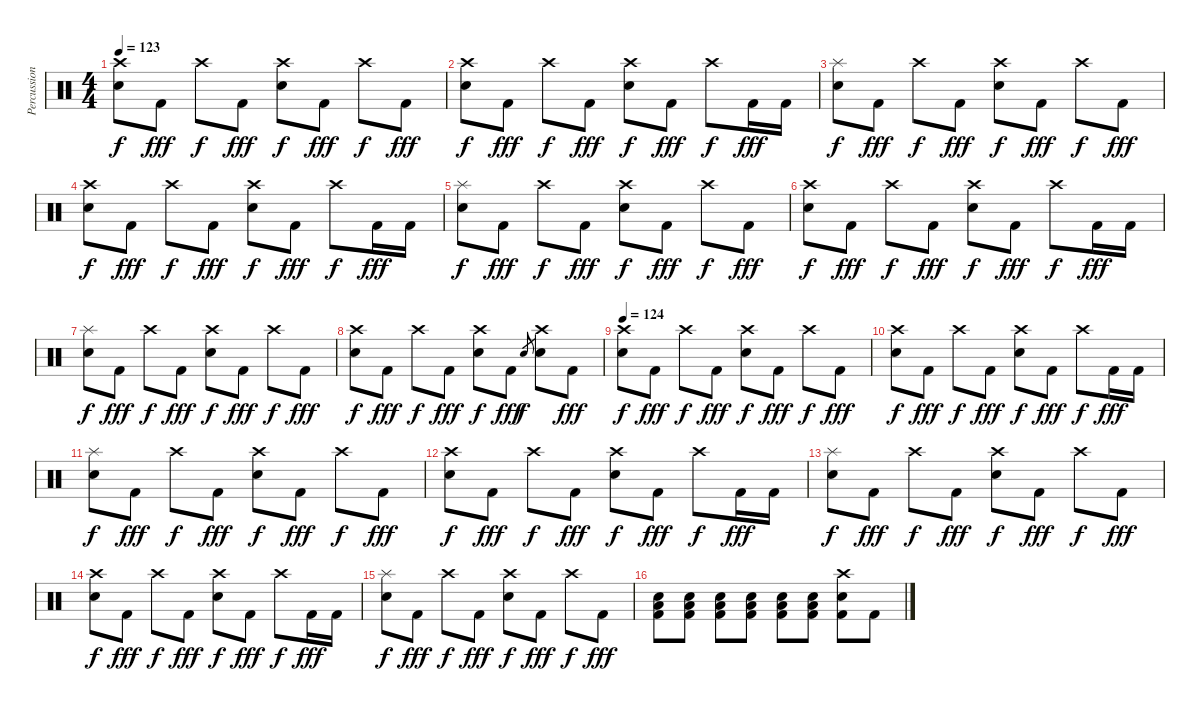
\track ("Percussion" "Percussion") {instrument percussion}
\staff {score}
\articulation defaults
\ts (4 4)
\tempo 123
\clef neutral
\ks c
("Crash high (hit)" "Snare (hit) 2").8{dy f} "Kick (hit) 2".8{dy fff} "Crash high (hit)".8{dy f} "Kick (hit) 2".8{dy fff} ("Crash high (hit)" "Snare (hit) 2").8{dy f} "Kick (hit) 2".8{dy fff} "Crash high (hit)".8{dy f} "Kick (hit) 2".8{dy fff} |
("Crash high (hit)" "Snare (hit) 2").8{dy f} "Kick (hit) 2".8{dy fff} "Crash high (hit)".8{dy f} "Kick (hit) 2".8{dy fff} ("Crash high (hit)" "Snare (hit) 2").8{dy f} "Kick (hit) 2".8{dy fff} "Crash high (hit)".8{dy f} "Kick (hit) 2".16{dy fff} "Kick (hit) 2".16 |
("Splash (hit)" "Snare (hit) 2").8{dy f} "Kick (hit) 2".8{dy fff} "Crash high (hit)".8{dy f} "Kick (hit) 2".8{dy fff} ("Crash high (hit)" "Snare (hit) 2").8{dy f} "Kick (hit) 2".8{dy fff} "Crash high (hit)".8{dy f} "Kick (hit) 2".8{dy fff} |
("Crash high (hit)" "Snare (hit) 2").8{dy f} "Kick (hit) 2".8{dy fff} "Crash high (hit)".8{dy f} "Kick (hit) 2".8{dy fff} ("Crash high (hit)" "Snare (hit) 2").8{dy f} "Kick (hit) 2".8{dy fff} "Crash high (hit)".8{dy f} "Kick (hit) 2".16{dy fff} "Kick (hit) 2".16 |
("Splash (hit)" "Snare (hit) 2").8{dy f} "Kick (hit) 2".8{dy fff} "Crash high (hit)".8{dy f} "Kick (hit) 2".8{dy fff} ("Crash high (hit)" "Snare (hit) 2").8{dy f} "Kick (hit) 2".8{dy fff} "Crash high (hit)".8{dy f} "Kick (hit) 2".8{dy fff} |
("Crash high (hit)" "Snare (hit) 2").8{dy f} "Kick (hit) 2".8{dy fff} "Crash high (hit)".8{dy f} "Kick (hit) 2".8{dy fff} ("Crash high (hit)" "Snare (hit) 2").8{dy f} "Kick (hit) 2".8{dy fff} "Crash high (hit)".8{dy f} "Kick (hit) 2".16{dy fff} "Kick (hit) 2".16 |
("Splash (hit)" "Snare (hit) 2").8{dy f} "Kick (hit) 2".8{dy fff} "Crash high (hit)".8{dy f} "Kick (hit) 2".8{dy fff} ("Crash high (hit)" "Snare (hit) 2").8{dy f} "Kick (hit) 2".8{dy fff} "Crash high (hit)".8{dy f} "Kick (hit) 2".8{dy fff} |
("Crash high (hit)" "Snare (hit) 2").8{dy f} "Kick (hit) 2".8{dy fff} "Crash high (hit)".8{dy f} "Kick (hit) 2".8{dy fff} ("Crash high (hit)" "Snare (hit) 2").8{dy f} "Kick (hit) 2".8{dy fff} "Snare (hit) 2"{sl}.8{gr dy f} ("Crash high (hit)" "Snare (hit) 2").8 "Kick (hit) 2".8{dy fff} |
\tempo 124
("Crash high (hit)" "Snare (hit) 2").8{dy f} "Kick (hit) 2".8{dy fff} "Crash high (hit)".8{dy f} "Kick (hit) 2".8{dy fff} ("Crash high (hit)" "Snare (hit) 2").8{dy f} "Kick (hit) 2".8{dy fff} "Crash high (hit)".8{dy f} "Kick (hit) 2".8{dy fff} |
("Crash high (hit)" "Snare (hit) 2").8{dy f} "Kick (hit) 2".8{dy fff} "Crash high (hit)".8{dy f} "Kick (hit) 2".8{dy fff} ("Crash high (hit)" "Snare (hit) 2").8{dy f} "Kick (hit) 2".8{dy fff} "Crash high (hit)".8{dy f} "Kick (hit) 2".16{dy fff} "Kick (hit) 2".16 |
("Splash (hit)" "Snare (hit) 2").8{dy f} "Kick (hit) 2".8{dy fff} "Crash high (hit)".8{dy f} "Kick (hit) 2".8{dy fff} ("Crash high (hit)" "Snare (hit) 2").8{dy f} "Kick (hit) 2".8{dy fff} "Crash high (hit)".8{dy f} "Kick (hit) 2".8{dy fff} |
("Crash high (hit)" "Snare (hit) 2").8{dy f} "Kick (hit) 2".8{dy fff} "Crash high (hit)".8{dy f} "Kick (hit) 2".8{dy fff} ("Crash high (hit)" "Snare (hit) 2").8{dy f} "Kick (hit) 2".8{dy fff} "Crash high (hit)".8{dy f} "Kick (hit) 2".16{dy fff} "Kick (hit) 2".16 |
("Splash (hit)" "Snare (hit) 2").8{dy f} "Kick (hit) 2".8{dy fff} "Crash high (hit)".8{dy f} "Kick (hit) 2".8{dy fff} ("Crash high (hit)" "Snare (hit) 2").8{dy f} "Kick (hit) 2".8{dy fff} "Crash high (hit)".8{dy f} "Kick (hit) 2".8{dy fff} |
("Crash high (hit)" "Snare (hit) 2").8{dy f} "Kick (hit) 2".8{dy fff} "Crash high (hit)".8{dy f} "Kick (hit) 2".8{dy fff} ("Crash high (hit)" "Snare (hit) 2").8{dy f} "Kick (hit) 2".8{dy fff} "Crash high (hit)".8{dy f} "Kick (hit) 2".16{dy fff} "Kick (hit) 2".16 |
("Splash (hit)" "Snare (hit) 2").8{dy f} "Kick (hit) 2".8{dy fff} "Crash high (hit)".8{dy f} "Kick (hit) 2".8{dy fff} ("Crash high (hit)" "Snare (hit) 2").8{dy f} "Kick (hit) 2".8{dy fff} "Crash high (hit)".8{dy f} "Kick (hit) 2".8{dy fff} |
("Low Floor Tom (hit)" "Snare (hit) 2" "Kick (hit) 2").8 ("Low Floor Tom (hit)" "Snare (hit) 2" "Kick (hit) 2").8 ("Low Floor Tom (hit)" "Snare (hit) 2" "Kick (hit) 2").8 ("Low Floor Tom (hit)" "Snare (hit) 2" "Kick (hit) 2").8 ("Low Floor Tom (hit)" "Snare (hit) 2" "Kick (hit) 2").8 ("Low Floor Tom (hit)" "Snare (hit) 2" "Kick (hit) 2").8 ("Crash high (hit)" "Snare (hit) 2" "Kick (hit) 2").8 "Kick (hit) 2".8
